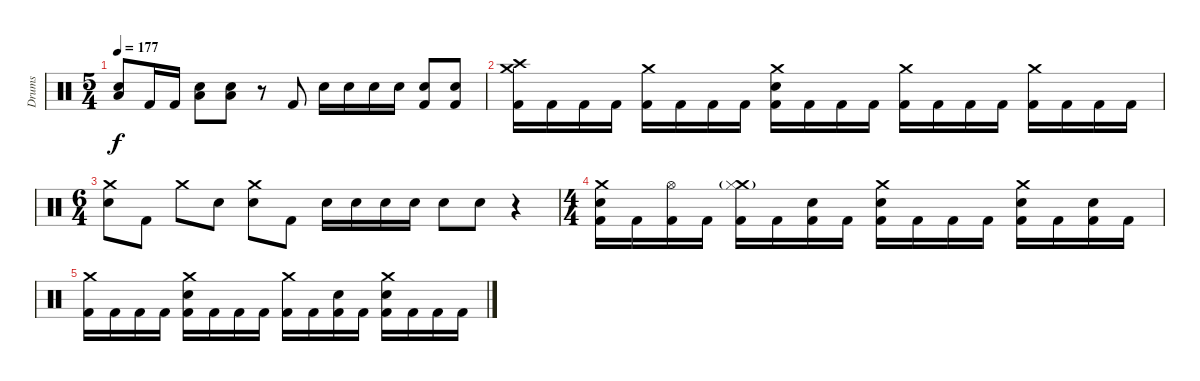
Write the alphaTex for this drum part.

\track ("Drums" "Drums") {instrument percussion}
\staff {score}
\articulation defaults
\ts (5 4)
\tempo 177
\clef neutral
\ks c
("Low Floor Tom (hit)" "Electric Snare (hit)").8{dy f} "Kick (hit) 2".16 "Kick (hit) 2".16 ("Low Floor Tom (hit)" "Electric Snare (hit)").8 ("Low Floor Tom (hit)" "Electric Snare (hit)").8 r.8 "Kick (hit) 2".8 "Electric Snare (hit)".16 "Electric Snare (hit)".16 "Electric Snare (hit)".16 "Electric Snare (hit)".16 ("Electric Snare (hit)" "Kick (hit) 2").8 ("Electric Snare (hit)" "Kick (hit) 2").8 |
("Crash medium (hit)" "Crash high (hit)" "Kick (hit) 2").16 "Kick (hit) 2".16 "Kick (hit) 2".16 "Kick (hit) 2".16 ("Crash medium (hit)" "Kick (hit) 2").16 "Kick (hit) 2".16 "Kick (hit) 2".16 "Kick (hit) 2".16 ("Crash medium (hit)" "Electric Snare (hit)" "Kick (hit) 2").16 "Kick (hit) 2".16 "Kick (hit) 2".16 "Kick (hit) 2".16 ("Crash medium (hit)" "Kick (hit) 2").16 "Kick (hit) 2".16 "Kick (hit) 2".16 "Kick (hit) 2".16 ("Crash medium (hit)" "Kick (hit) 2").16 "Kick (hit) 2".16 "Kick (hit) 2".16 "Kick (hit) 2".16 |
\ts (6 4)
("Crash medium (hit)" "Electric Snare (hit)").8 "Kick (hit) 2".8 "Crash medium (hit)".8 "Electric Snare (hit)".8 ("Crash medium (hit)" "Electric Snare (hit)").8 "Kick (hit) 2".8 "Electric Snare (hit)".16 "Electric Snare (hit)".16 "Electric Snare (hit)".16 "Electric Snare (hit)".16 "Electric Snare (hit)".8 "Electric Snare (hit)".8 r.4 |
\ts (4 4)
("Crash medium (hit)" "Electric Snare (hit)" "Kick (hit) 2").16 "Kick (hit) 2".16 ("Hi-Hat (open)" "Kick (hit) 2").16 "Kick (hit) 2".16 ("Crash medium (hit)" "Hi-Hat (closed)"{g} "Kick (hit) 2").16 "Kick (hit) 2".16 ("Electric Snare (hit)" "Kick (hit) 2").16 "Kick (hit) 2".16 ("Crash medium (hit)" "Electric Snare (hit)" "Kick (hit) 2").16 "Kick (hit) 2".16 "Kick (hit) 2".16 "Kick (hit) 2".16 ("Crash medium (hit)" "Electric Snare (hit)" "Kick (hit) 2").16 "Kick (hit) 2".16 ("Electric Snare (hit)" "Kick (hit) 2").16 "Kick (hit) 2".16 |
("Crash medium (hit)" "Kick (hit) 2").16 "Kick (hit) 2".16 "Kick (hit) 2".16 "Kick (hit) 2".16 ("Crash medium (hit)" "Electric Snare (hit)" "Kick (hit) 2").16 "Kick (hit) 2".16 "Kick (hit) 2".16 "Kick (hit) 2".16 ("Crash medium (hit)" "Kick (hit) 2").16 "Kick (hit) 2".16 ("Electric Snare (hit)" "Kick (hit) 2").16 "Kick (hit) 2".16 ("Crash medium (hit)" "Electric Snare (hit)" "Kick (hit) 2").16 "Kick (hit) 2".16 "Kick (hit) 2".16 "Kick (hit) 2".16
